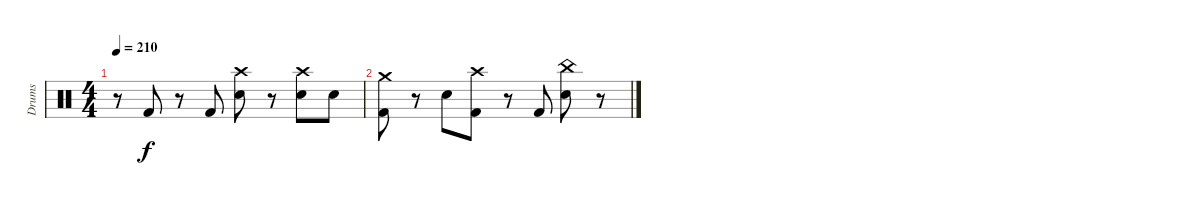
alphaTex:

\track ("Drums" "Drums") {instrument percussion}
\staff {score}
\articulation defaults
\ts (4 4)
\tempo 210
\clef neutral
\ks c
r.8{dy f} "Kick (hit) 2".8 r.8 "Kick (hit) 2".8 ("Crash high (hit)" "Electric Snare (hit)").8 r.8 ("Crash high (hit)" "Electric Snare (hit)").8 "Electric Snare (hit)".8 |
("Crash medium (hit)" "Kick (hit) 2").8 r.8 "Electric Snare (hit)".8 ("Crash high (hit)" "Kick (hit) 2").8 r.8 "Kick (hit) 2".8 ("China (hit)" "Electric Snare (hit)").8 r.8
